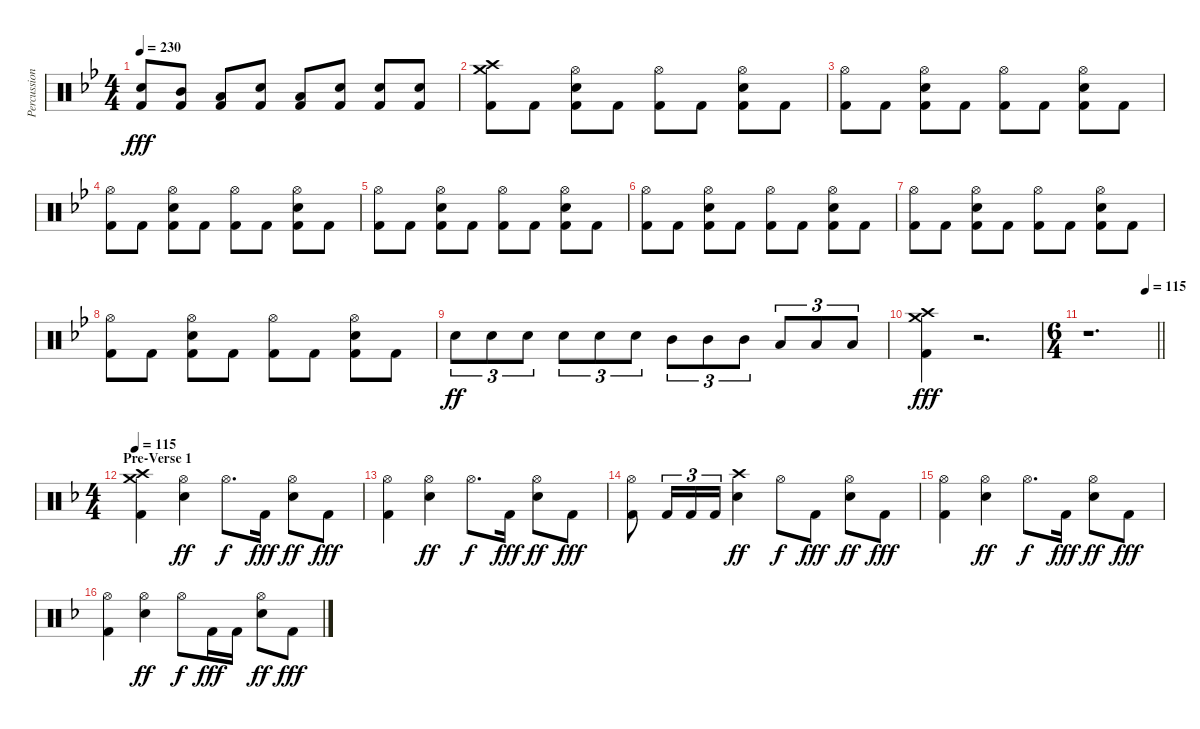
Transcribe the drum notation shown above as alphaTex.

\track ("Percussion" "Percussion") {instrument percussion}
\staff {score}
\articulation defaults
\ts (4 4)
\tempo 230
\clef neutral
\ks gminor
("Electric Snare (hit)" "Kick (hit) 2").8{dy fff} ("Mid Tom (hit)" "Kick (hit) 2").8 ("Low Tom (hit)" "Kick (hit) 2").8 ("Electric Snare (hit)" "Kick (hit) 2").8 ("Low Tom (hit)" "Kick (hit) 2").8 ("Electric Snare (hit)" "Kick (hit) 2").8 ("Electric Snare (hit)" "Kick (hit) 2").8 ("Electric Snare (hit)" "Kick (hit) 2").8 |
("Crash high (hit)" "Crash medium (hit)" "Kick (hit) 2").8 "Kick (hit) 2".8 ("Hi-Hat (open)" "Electric Snare (hit)" "Kick (hit) 2").8 "Kick (hit) 2".8 ("Hi-Hat (open)" "Kick (hit) 2").8 "Kick (hit) 2".8 ("Hi-Hat (open)" "Electric Snare (hit)" "Kick (hit) 2").8 "Kick (hit) 2".8 |
("Hi-Hat (open)" "Kick (hit) 2").8 "Kick (hit) 2".8 ("Hi-Hat (open)" "Electric Snare (hit)" "Kick (hit) 2").8 "Kick (hit) 2".8 ("Hi-Hat (open)" "Kick (hit) 2").8 "Kick (hit) 2".8 ("Hi-Hat (open)" "Electric Snare (hit)" "Kick (hit) 2").8 "Kick (hit) 2".8 |
("Hi-Hat (open)" "Kick (hit) 2").8 "Kick (hit) 2".8 ("Hi-Hat (open)" "Electric Snare (hit)" "Kick (hit) 2").8 "Kick (hit) 2".8 ("Hi-Hat (open)" "Kick (hit) 2").8 "Kick (hit) 2".8 ("Hi-Hat (open)" "Electric Snare (hit)" "Kick (hit) 2").8 "Kick (hit) 2".8 |
("Hi-Hat (open)" "Kick (hit) 2").8 "Kick (hit) 2".8 ("Hi-Hat (open)" "Electric Snare (hit)" "Kick (hit) 2").8 "Kick (hit) 2".8 ("Hi-Hat (open)" "Kick (hit) 2").8 "Kick (hit) 2".8 ("Hi-Hat (open)" "Electric Snare (hit)" "Kick (hit) 2").8 "Kick (hit) 2".8 |
("Hi-Hat (open)" "Kick (hit) 2").8 "Kick (hit) 2".8 ("Hi-Hat (open)" "Electric Snare (hit)" "Kick (hit) 2").8 "Kick (hit) 2".8 ("Hi-Hat (open)" "Kick (hit) 2").8 "Kick (hit) 2".8 ("Hi-Hat (open)" "Electric Snare (hit)" "Kick (hit) 2").8 "Kick (hit) 2".8 |
("Hi-Hat (open)" "Kick (hit) 2").8 "Kick (hit) 2".8 ("Hi-Hat (open)" "Electric Snare (hit)" "Kick (hit) 2").8 "Kick (hit) 2".8 ("Hi-Hat (open)" "Kick (hit) 2").8 "Kick (hit) 2".8 ("Hi-Hat (open)" "Electric Snare (hit)" "Kick (hit) 2").8 "Kick (hit) 2".8 |
("Hi-Hat (open)" "Kick (hit) 2").8 "Kick (hit) 2".8 ("Hi-Hat (open)" "Electric Snare (hit)" "Kick (hit) 2").8 "Kick (hit) 2".8 ("Hi-Hat (open)" "Kick (hit) 2").8 "Kick (hit) 2".8 ("Hi-Hat (open)" "Electric Snare (hit)" "Kick (hit) 2").8 "Kick (hit) 2".8 |
"Electric Snare (hit)".8{tu (3 2) dy ff} "Electric Snare (hit)".8{tu (3 2)} "Electric Snare (hit)".8{tu (3 2)} "Electric Snare (hit)".8{tu (3 2)} "Electric Snare (hit)".8{tu (3 2)} "Electric Snare (hit)".8{tu (3 2)} "Mid Tom (hit)".8{tu (3 2)} "Mid Tom (hit)".8{tu (3 2)} "Mid Tom (hit)".8{tu (3 2)} "Low Tom (hit)".8{tu (3 2)} "Low Tom (hit)".8{tu (3 2)} "Low Tom (hit)".8{tu (3 2)} |
("Crash high (hit)" "Crash medium (hit)" "Kick (hit) 2").4{dy fff} r.2{d} |
\ts (6 4)
\tempo (115 0.8333333333333334)
\barLineRight lightlight
r.1{d} |
\ts (4 4)
\section ("" "Pre-Verse 1")
\tempo 115
\ks dminor
("Crash high (hit)" "Crash medium (hit)" "Kick (hit) 2").4 ("Hi-Hat (open)" "Electric Snare (hit)").4{dy ff} "Hi-Hat (open)".8{d dy f} "Kick (hit) 2".16{dy fff} ("Hi-Hat (open)" "Electric Snare (hit)").8{dy ff} "Kick (hit) 2".8{dy fff} |
("Hi-Hat (open)" "Kick (hit) 2").4 ("Hi-Hat (open)" "Electric Snare (hit)").4{dy ff} "Hi-Hat (open)".8{d dy f} "Kick (hit) 2".16{dy fff} ("Hi-Hat (open)" "Electric Snare (hit)").8{dy ff} "Kick (hit) 2".8{dy fff} |
("Hi-Hat (open)" "Kick (hit) 2").8 "Kick (hit) 2".16{tu (3 2)} "Kick (hit) 2".16{tu (3 2)} "Kick (hit) 2".16{tu (3 2)} ("Crash high (hit)" "Electric Snare (hit)").4{dy ff} "Hi-Hat (open)".8{dy f} "Kick (hit) 2".8{dy fff} ("Hi-Hat (open)" "Electric Snare (hit)").8{dy ff} "Kick (hit) 2".8{dy fff} |
("Hi-Hat (open)" "Kick (hit) 2").4 ("Hi-Hat (open)" "Electric Snare (hit)").4{dy ff} "Hi-Hat (open)".8{d dy f} "Kick (hit) 2".16{dy fff} ("Hi-Hat (open)" "Electric Snare (hit)").8{dy ff} "Kick (hit) 2".8{dy fff} |
("Hi-Hat (open)" "Kick (hit) 2").4 ("Hi-Hat (open)" "Electric Snare (hit)").4{dy ff} "Hi-Hat (open)".8{dy f} "Kick (hit) 2".16{dy fff} "Kick (hit) 2".16 ("Hi-Hat (open)" "Electric Snare (hit)").8{dy ff} "Kick (hit) 2".8{dy fff}
